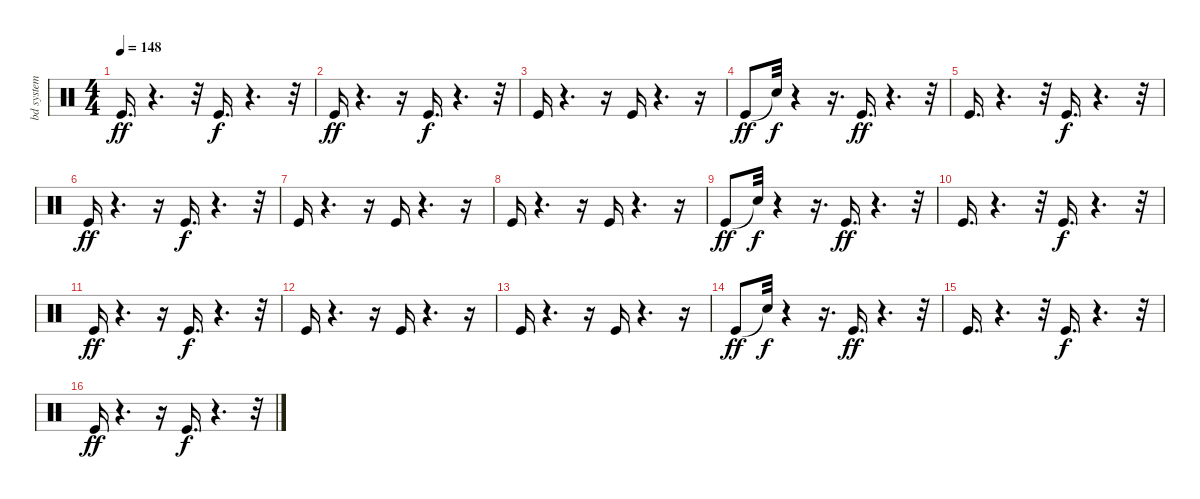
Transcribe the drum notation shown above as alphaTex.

\track ("bd system kits      " "bd system ") {instrument percussion}
\staff {score}
\articulation defaults
\ts (4 4)
\tempo 148
\clef neutral
\ks c "Kick (hit)".16{d dy ff}
r.4{d} r.32 "Kick (hit)".16{d dy f} r.4{d} r.32 |
"Kick (hit)".16{dy ff} r.4{d} r.16 "Kick (hit)".16{d dy f} r.4{d} r.32 |
"Kick (hit)".16 r.4{d} r.16 "Kick (hit)".16 r.4{d} r.16 |
"Kick (hit)".8{dy ff} "Snare (hit)"{t}.32{dy f} r.4 r.16{d} "Kick (hit)".16{d dy ff} r.4{d} r.32 |
"Kick (hit)".16{d} r.4{d} r.32 "Kick (hit)".16{d dy f} r.4{d} r.32 |
"Kick (hit)".16{dy ff} r.4{d} r.16 "Kick (hit)".16{d dy f} r.4{d} r.32 |
"Kick (hit)".16 r.4{d} r.16 "Kick (hit)".16 r.4{d} r.16 |
"Kick (hit)".16 r.4{d} r.16 "Kick (hit)".16 r.4{d} r.16 |
"Kick (hit)".8{dy ff} "Snare (hit)"{t}.32{dy f} r.4 r.16{d} "Kick (hit)".16{d dy ff} r.4{d} r.32 |
"Kick (hit)".16{d} r.4{d} r.32 "Kick (hit)".16{d dy f} r.4{d} r.32 |
"Kick (hit)".16{dy ff} r.4{d} r.16 "Kick (hit)".16{d dy f} r.4{d} r.32 |
"Kick (hit)".16 r.4{d} r.16 "Kick (hit)".16 r.4{d} r.16 |
"Kick (hit)".16 r.4{d} r.16 "Kick (hit)".16 r.4{d} r.16 |
"Kick (hit)".8{dy ff} "Snare (hit)"{t}.32{dy f} r.4 r.16{d} "Kick (hit)".16{d dy ff} r.4{d} r.32 |
"Kick (hit)".16{d} r.4{d} r.32 "Kick (hit)".16{d dy f} r.4{d} r.32 |
"Kick (hit)".16{dy ff} r.4{d} r.16 "Kick (hit)".16{d dy f} r.4{d} r.32
